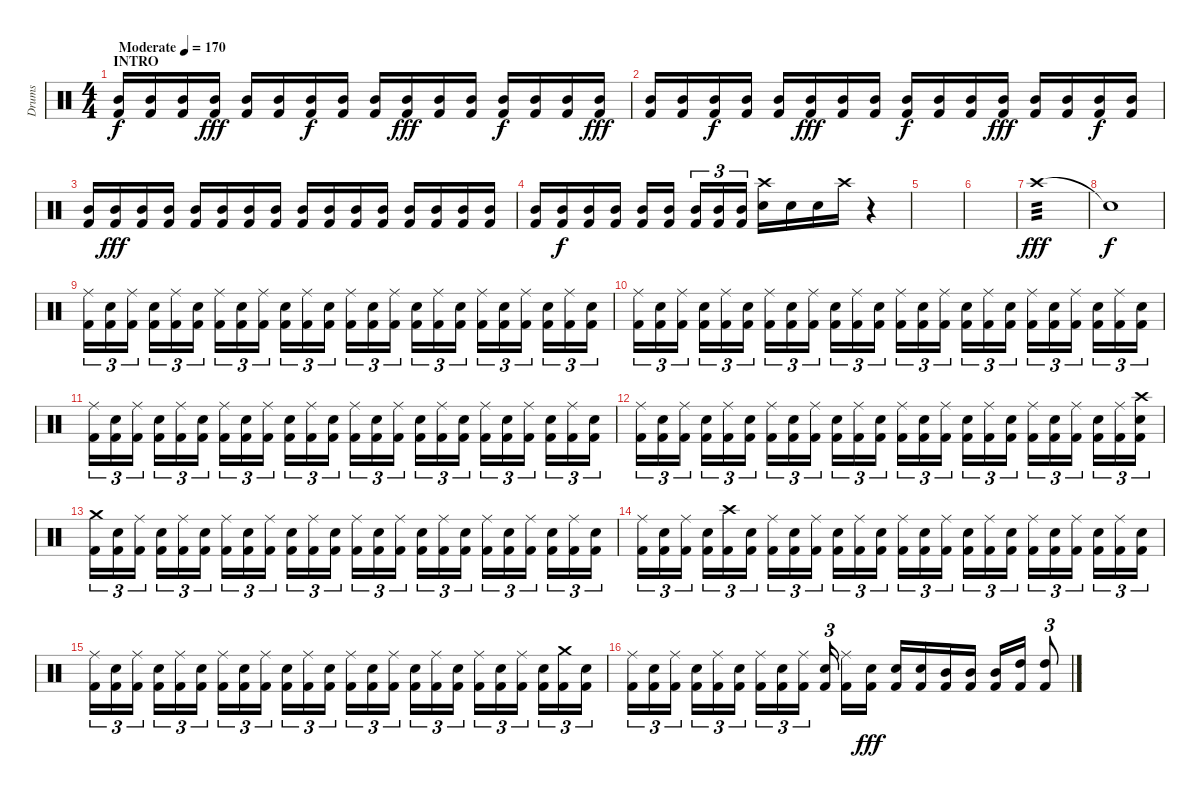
\track ("Drums" "Drums") {instrument percussion}
\staff {score}
\articulation defaults
\ts (4 4)
\section ("" "INTRO")
\tempo (170 "Moderate")
\clef neutral
\ks c
("Mid Tom (hit)" "Kick (hit) 2").16{dy f} ("Mid Tom (hit)" "Kick (hit) 2").16 ("Mid Tom (hit)" "Kick (hit) 2").16 ("Mid Tom (hit)" "Kick (hit) 2").16{dy fff} ("Mid Tom (hit)" "Kick (hit) 2").16 ("Mid Tom (hit)" "Kick (hit) 2").16 ("Mid Tom (hit)" "Kick (hit) 2").16{dy f} ("Mid Tom (hit)" "Kick (hit) 2").16 ("Mid Tom (hit)" "Kick (hit) 2").16 ("Mid Tom (hit)" "Kick (hit) 2").16{dy fff} ("Mid Tom (hit)" "Kick (hit) 2").16 ("Mid Tom (hit)" "Kick (hit) 2").16 ("Mid Tom (hit)" "Kick (hit) 2").16{dy f} ("Mid Tom (hit)" "Kick (hit) 2").16 ("Mid Tom (hit)" "Kick (hit) 2").16 ("Mid Tom (hit)" "Kick (hit) 2").16{dy fff} |
("Mid Tom (hit)" "Kick (hit) 2").16 ("Mid Tom (hit)" "Kick (hit) 2").16 ("Mid Tom (hit)" "Kick (hit) 2").16{dy f} ("Mid Tom (hit)" "Kick (hit) 2").16 ("Mid Tom (hit)" "Kick (hit) 2").16 ("Mid Tom (hit)" "Kick (hit) 2").16{dy fff} ("Mid Tom (hit)" "Kick (hit) 2").16 ("Mid Tom (hit)" "Kick (hit) 2").16 ("Mid Tom (hit)" "Kick (hit) 2").16{dy f} ("Mid Tom (hit)" "Kick (hit) 2").16 ("Mid Tom (hit)" "Kick (hit) 2").16 ("Mid Tom (hit)" "Kick (hit) 2").16{dy fff} ("Mid Tom (hit)" "Kick (hit) 2").16 ("Mid Tom (hit)" "Kick (hit) 2").16 ("Mid Tom (hit)" "Kick (hit) 2").16{dy f} ("Mid Tom (hit)" "Kick (hit) 2").16 |
("Mid Tom (hit)" "Kick (hit) 2").16 ("Mid Tom (hit)" "Kick (hit) 2").16{dy fff} ("Mid Tom (hit)" "Kick (hit) 2").16 ("Mid Tom (hit)" "Kick (hit) 2").16 ("Mid Tom (hit)" "Kick (hit) 2").16 ("Mid Tom (hit)" "Kick (hit) 2").16 ("Mid Tom (hit)" "Kick (hit) 2").16 ("Mid Tom (hit)" "Kick (hit) 2").16 ("Mid Tom (hit)" "Kick (hit) 2").16 ("Mid Tom (hit)" "Kick (hit) 2").16 ("Mid Tom (hit)" "Kick (hit) 2").16 ("Mid Tom (hit)" "Kick (hit) 2").16 ("Mid Tom (hit)" "Kick (hit) 2").16 ("Mid Tom (hit)" "Kick (hit) 2").16 ("Mid Tom (hit)" "Kick (hit) 2").16 ("Mid Tom (hit)" "Kick (hit) 2").16 |
("Mid Tom (hit)" "Kick (hit) 2").16 ("Mid Tom (hit)" "Kick (hit) 2").16{dy f} ("Mid Tom (hit)" "Kick (hit) 2").16 ("Mid Tom (hit)" "Kick (hit) 2").16 ("Mid Tom (hit)" "Kick (hit) 2").16 ("Mid Tom (hit)" "Kick (hit) 2").16{beam splitsecondary} ("Mid Tom (hit)" "Kick (hit) 2").16{tu (3 2)} ("Mid Tom (hit)" "Kick (hit) 2").16{tu (3 2)} ("Mid Tom (hit)" "Kick (hit) 2").16{tu (3 2)} ("Crash high (hit)" "Snare (hit) 2").16 "Snare (hit) 2".16 "Electric Snare (hit)".16 "Crash high (hit)".16 r.4 |
|
|
"Crash high (hit)".1{tp 3 dy fff} |
"Snare (hit)"{t}.1{dy f} |
("Ride (middle)" "Kick (hit) 2").16{tu (3 2)} ("Snare (hit) 2" "Kick (hit) 2").16{tu (3 2)} ("Ride (middle)" "Kick (hit) 2").16{tu (3 2) beam splitsecondary} ("Snare (hit) 2" "Kick (hit) 2").16{tu (3 2)} ("Ride (middle)" "Kick (hit) 2").16{tu (3 2)} ("Snare (hit) 2" "Kick (hit) 2").16{tu (3 2)} ("Ride (middle)" "Kick (hit) 2").16{tu (3 2)} ("Snare (hit) 2" "Kick (hit) 2").16{tu (3 2)} ("Ride (middle)" "Kick (hit) 2").16{tu (3 2) beam splitsecondary} ("Snare (hit) 2" "Kick (hit) 2").16{tu (3 2)} ("Ride (middle)" "Kick (hit) 2").16{tu (3 2)} ("Snare (hit) 2" "Kick (hit) 2").16{tu (3 2)} ("Ride (middle)" "Kick (hit) 2").16{tu (3 2)} ("Snare (hit) 2" "Kick (hit) 2").16{tu (3 2)} ("Ride (middle)" "Kick (hit) 2").16{tu (3 2) beam splitsecondary} ("Snare (hit) 2" "Kick (hit) 2").16{tu (3 2)} ("Ride (middle)" "Kick (hit) 2").16{tu (3 2)} ("Snare (hit) 2" "Kick (hit) 2").16{tu (3 2)} ("Ride (middle)" "Kick (hit) 2").16{tu (3 2)} ("Snare (hit) 2" "Kick (hit) 2").16{tu (3 2)} ("Ride (middle)" "Kick (hit) 2").16{tu (3 2) beam splitsecondary} ("Snare (hit) 2" "Kick (hit) 2").16{tu (3 2)} ("Ride (middle)" "Kick (hit) 2").16{tu (3 2)} ("Snare (hit) 2" "Kick (hit) 2").16{tu (3 2)} |
("Ride (middle)" "Kick (hit) 2").16{tu (3 2)} ("Snare (hit) 2" "Kick (hit) 2").16{tu (3 2)} ("Ride (middle)" "Kick (hit) 2").16{tu (3 2) beam splitsecondary} ("Snare (hit) 2" "Kick (hit) 2").16{tu (3 2)} ("Ride (middle)" "Kick (hit) 2").16{tu (3 2)} ("Snare (hit) 2" "Kick (hit) 2").16{tu (3 2)} ("Ride (middle)" "Kick (hit) 2").16{tu (3 2)} ("Snare (hit) 2" "Kick (hit) 2").16{tu (3 2)} ("Ride (middle)" "Kick (hit) 2").16{tu (3 2) beam splitsecondary} ("Snare (hit) 2" "Kick (hit) 2").16{tu (3 2)} ("Ride (middle)" "Kick (hit) 2").16{tu (3 2)} ("Snare (hit) 2" "Kick (hit) 2").16{tu (3 2)} ("Ride (middle)" "Kick (hit) 2").16{tu (3 2)} ("Snare (hit) 2" "Kick (hit) 2").16{tu (3 2)} ("Ride (middle)" "Kick (hit) 2").16{tu (3 2) beam splitsecondary} ("Snare (hit) 2" "Kick (hit) 2").16{tu (3 2)} ("Ride (middle)" "Kick (hit) 2").16{tu (3 2)} ("Snare (hit) 2" "Kick (hit) 2").16{tu (3 2)} ("Ride (middle)" "Kick (hit) 2").16{tu (3 2)} ("Snare (hit) 2" "Kick (hit) 2").16{tu (3 2)} ("Ride (middle)" "Kick (hit) 2").16{tu (3 2) beam splitsecondary} ("Snare (hit) 2" "Kick (hit) 2").16{tu (3 2)} ("Ride (middle)" "Kick (hit) 2").16{tu (3 2)} ("Snare (hit) 2" "Kick (hit) 2").16{tu (3 2)} |
("Ride (middle)" "Kick (hit) 2").16{tu (3 2)} ("Snare (hit) 2" "Kick (hit) 2").16{tu (3 2)} ("Ride (middle)" "Kick (hit) 2").16{tu (3 2) beam splitsecondary} ("Snare (hit) 2" "Kick (hit) 2").16{tu (3 2)} ("Ride (middle)" "Kick (hit) 2").16{tu (3 2)} ("Snare (hit) 2" "Kick (hit) 2").16{tu (3 2)} ("Ride (middle)" "Kick (hit) 2").16{tu (3 2)} ("Snare (hit) 2" "Kick (hit) 2").16{tu (3 2)} ("Ride (middle)" "Kick (hit) 2").16{tu (3 2) beam splitsecondary} ("Snare (hit) 2" "Kick (hit) 2").16{tu (3 2)} ("Ride (middle)" "Kick (hit) 2").16{tu (3 2)} ("Snare (hit) 2" "Kick (hit) 2").16{tu (3 2)} ("Ride (middle)" "Kick (hit) 2").16{tu (3 2)} ("Snare (hit) 2" "Kick (hit) 2").16{tu (3 2)} ("Ride (middle)" "Kick (hit) 2").16{tu (3 2) beam splitsecondary} ("Snare (hit) 2" "Kick (hit) 2").16{tu (3 2)} ("Ride (middle)" "Kick (hit) 2").16{tu (3 2)} ("Snare (hit) 2" "Kick (hit) 2").16{tu (3 2)} ("Ride (middle)" "Kick (hit) 2").16{tu (3 2)} ("Snare (hit) 2" "Kick (hit) 2").16{tu (3 2)} ("Ride (middle)" "Kick (hit) 2").16{tu (3 2) beam splitsecondary} ("Snare (hit) 2" "Kick (hit) 2").16{tu (3 2)} ("Ride (middle)" "Kick (hit) 2").16{tu (3 2)} ("Snare (hit) 2" "Kick (hit) 2").16{tu (3 2)} |
("Ride (middle)" "Kick (hit) 2").16{tu (3 2)} ("Snare (hit) 2" "Kick (hit) 2").16{tu (3 2)} ("Ride (middle)" "Kick (hit) 2").16{tu (3 2) beam splitsecondary} ("Snare (hit) 2" "Kick (hit) 2").16{tu (3 2)} ("Ride (middle)" "Kick (hit) 2").16{tu (3 2)} ("Snare (hit) 2" "Kick (hit) 2").16{tu (3 2)} ("Ride (middle)" "Kick (hit) 2").16{tu (3 2)} ("Snare (hit) 2" "Kick (hit) 2").16{tu (3 2)} ("Ride (middle)" "Kick (hit) 2").16{tu (3 2) beam splitsecondary} ("Snare (hit) 2" "Kick (hit) 2").16{tu (3 2)} ("Ride (middle)" "Kick (hit) 2").16{tu (3 2)} ("Snare (hit) 2" "Kick (hit) 2").16{tu (3 2)} ("Ride (middle)" "Kick (hit) 2").16{tu (3 2)} ("Snare (hit) 2" "Kick (hit) 2").16{tu (3 2)} ("Ride (middle)" "Kick (hit) 2").16{tu (3 2) beam splitsecondary} ("Snare (hit) 2" "Kick (hit) 2").16{tu (3 2)} ("Ride (middle)" "Kick (hit) 2").16{tu (3 2)} ("Snare (hit) 2" "Kick (hit) 2").16{tu (3 2)} ("Ride (middle)" "Kick (hit) 2").16{tu (3 2)} ("Snare (hit) 2" "Kick (hit) 2").16{tu (3 2)} ("Ride (middle)" "Kick (hit) 2").16{tu (3 2) beam splitsecondary} ("Snare (hit) 2" "Kick (hit) 2").16{tu (3 2)} ("Ride (middle)" "Kick (hit) 2").16{tu (3 2)} ("Crash high (hit)" "Snare (hit) 2" "Kick (hit) 2").16{tu (3 2)} |
("Crash medium (hit)" "Kick (hit) 2").16{tu (3 2)} ("Snare (hit) 2" "Kick (hit) 2").16{tu (3 2)} ("Ride (middle)" "Kick (hit) 2").16{tu (3 2) beam splitsecondary} ("Snare (hit) 2" "Kick (hit) 2").16{tu (3 2)} ("Ride (middle)" "Kick (hit) 2").16{tu (3 2)} ("Snare (hit) 2" "Kick (hit) 2").16{tu (3 2)} ("Ride (middle)" "Kick (hit) 2").16{tu (3 2)} ("Snare (hit) 2" "Kick (hit) 2").16{tu (3 2)} ("Ride (middle)" "Kick (hit) 2").16{tu (3 2) beam splitsecondary} ("Snare (hit) 2" "Kick (hit) 2").16{tu (3 2)} ("Ride (middle)" "Kick (hit) 2").16{tu (3 2)} ("Snare (hit) 2" "Kick (hit) 2").16{tu (3 2)} ("Ride (middle)" "Kick (hit) 2").16{tu (3 2)} ("Snare (hit) 2" "Kick (hit) 2").16{tu (3 2)} ("Ride (middle)" "Kick (hit) 2").16{tu (3 2) beam splitsecondary} ("Snare (hit) 2" "Kick (hit) 2").16{tu (3 2)} ("Ride (middle)" "Kick (hit) 2").16{tu (3 2)} ("Snare (hit) 2" "Kick (hit) 2").16{tu (3 2)} ("Ride (middle)" "Kick (hit) 2").16{tu (3 2)} ("Snare (hit) 2" "Kick (hit) 2").16{tu (3 2)} ("Ride (middle)" "Kick (hit) 2").16{tu (3 2) beam splitsecondary} ("Snare (hit) 2" "Kick (hit) 2").16{tu (3 2)} ("Ride (middle)" "Kick (hit) 2").16{tu (3 2)} ("Snare (hit) 2" "Kick (hit) 2").16{tu (3 2)} |
("Ride (middle)" "Kick (hit) 2").16{tu (3 2)} ("Snare (hit) 2" "Kick (hit) 2").16{tu (3 2)} ("Ride (middle)" "Kick (hit) 2").16{tu (3 2) beam splitsecondary} ("Snare (hit) 2" "Kick (hit) 2").16{tu (3 2)} ("Crash high (hit)" "Kick (hit) 2").16{tu (3 2)} ("Snare (hit) 2" "Kick (hit) 2").16{tu (3 2)} ("Ride (middle)" "Kick (hit) 2").16{tu (3 2)} ("Snare (hit) 2" "Kick (hit) 2").16{tu (3 2)} ("Ride (middle)" "Kick (hit) 2").16{tu (3 2) beam splitsecondary} ("Snare (hit) 2" "Kick (hit) 2").16{tu (3 2)} ("Ride (middle)" "Kick (hit) 2").16{tu (3 2)} ("Snare (hit) 2" "Kick (hit) 2").16{tu (3 2)} ("Ride (middle)" "Kick (hit) 2").16{tu (3 2)} ("Snare (hit) 2" "Kick (hit) 2").16{tu (3 2)} ("Ride (middle)" "Kick (hit) 2").16{tu (3 2) beam splitsecondary} ("Snare (hit) 2" "Kick (hit) 2").16{tu (3 2)} ("Ride (middle)" "Kick (hit) 2").16{tu (3 2)} ("Snare (hit) 2" "Kick (hit) 2").16{tu (3 2)} ("Ride (middle)" "Kick (hit) 2").16{tu (3 2)} ("Snare (hit) 2" "Kick (hit) 2").16{tu (3 2)} ("Ride (middle)" "Kick (hit) 2").16{tu (3 2) beam splitsecondary} ("Snare (hit) 2" "Kick (hit) 2").16{tu (3 2)} ("Ride (middle)" "Kick (hit) 2").16{tu (3 2)} ("Snare (hit) 2" "Kick (hit) 2").16{tu (3 2)} |
("Ride (middle)" "Kick (hit) 2").16{tu (3 2)} ("Snare (hit) 2" "Kick (hit) 2").16{tu (3 2)} ("Ride (middle)" "Kick (hit) 2").16{tu (3 2) beam splitsecondary} ("Snare (hit) 2" "Kick (hit) 2").16{tu (3 2)} ("Ride (middle)" "Kick (hit) 2").16{tu (3 2)} ("Snare (hit) 2" "Kick (hit) 2").16{tu (3 2)} ("Ride (middle)" "Kick (hit) 2").16{tu (3 2)} ("Snare (hit) 2" "Kick (hit) 2").16{tu (3 2)} ("Ride (middle)" "Kick (hit) 2").16{tu (3 2) beam splitsecondary} ("Snare (hit) 2" "Kick (hit) 2").16{tu (3 2)} ("Ride (middle)" "Kick (hit) 2").16{tu (3 2)} ("Snare (hit) 2" "Kick (hit) 2").16{tu (3 2)} ("Ride (middle)" "Kick (hit) 2").16{tu (3 2)} ("Snare (hit) 2" "Kick (hit) 2").16{tu (3 2)} ("Ride (middle)" "Kick (hit) 2").16{tu (3 2) beam splitsecondary} ("Snare (hit) 2" "Kick (hit) 2").16{tu (3 2)} ("Ride (middle)" "Kick (hit) 2").16{tu (3 2)} ("Snare (hit) 2" "Kick (hit) 2").16{tu (3 2)} ("Ride (middle)" "Kick (hit) 2").16{tu (3 2)} ("Snare (hit) 2" "Kick (hit) 2").16{tu (3 2)} ("Ride (middle)" "Kick (hit) 2").16{tu (3 2) beam splitsecondary} ("Snare (hit) 2" "Kick (hit) 2").16{tu (3 2)} ("Crash medium (hit)" "Kick (hit) 2").16{tu (3 2)} ("Snare (hit) 2" "Kick (hit) 2").16{tu (3 2)} |
("Ride (middle)" "Kick (hit) 2").16{tu (3 2)} ("Snare (hit) 2" "Kick (hit) 2").16{tu (3 2)} ("Ride (middle)" "Kick (hit) 2").16{tu (3 2) beam splitsecondary} ("Snare (hit) 2" "Kick (hit) 2").16{tu (3 2)} ("Ride (middle)" "Kick (hit) 2").16{tu (3 2)} ("Snare (hit) 2" "Kick (hit) 2").16{tu (3 2)} ("Ride (middle)" "Kick (hit) 2").16{tu (3 2)} ("Snare (hit) 2" "Kick (hit) 2").16{tu (3 2)} ("Ride (middle)" "Kick (hit) 2").16{tu (3 2) beam splitsecondary} ("Snare (hit) 2" "Kick (hit) 2").16{tu (3 2) beam splitsecondary} ("Ride (middle)" "Kick (hit) 2").16 ("Snare (hit) 2" "Kick (hit) 2").16{dy fff} ("Snare (hit) 2" "Kick (hit) 2").16 ("Snare (hit) 2" "Kick (hit) 2").16 ("Mid Tom (hit)" "Kick (hit) 2").16 ("Mid Tom (hit)" "Kick (hit) 2").16 ("Mid Tom (hit)" "Kick (hit) 2").16 ("High Tom (hit)" "Kick (hit) 2").16 ("High Tom (hit)" "Kick (hit) 2").8{tu (3 2)}
